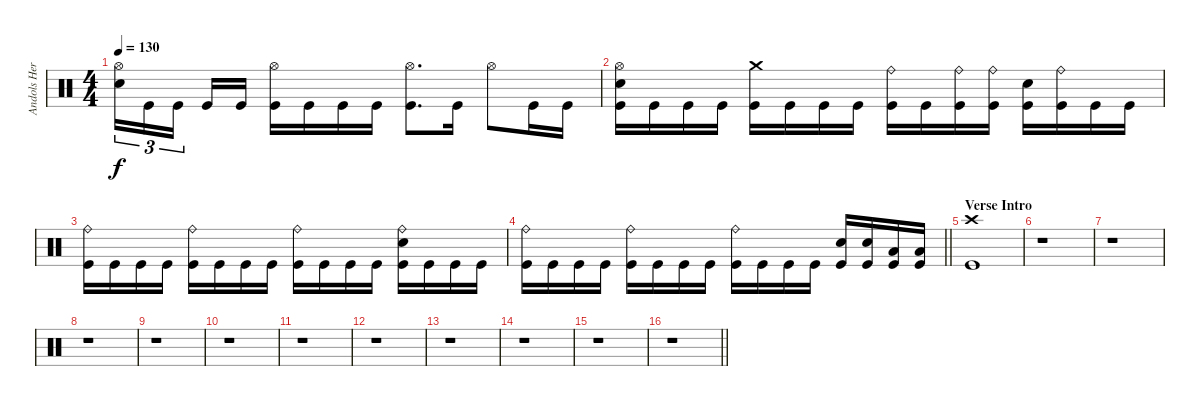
\track ("Andols Herrick" "Andols Her") {instrument percussion}
\staff {score}
\articulation defaults
\ts (4 4)
\tempo 130
\clef neutral
\ks c
("Hi-Hat (open)" "Electric Snare (hit)").16{tu (3 2) dy f} "Kick (hit)".16{tu (3 2)} "Kick (hit)".16{tu (3 2) beam splitsecondary} "Kick (hit)".16 "Kick (hit)".16 ("Hi-Hat (open)" "Kick (hit)").16 "Kick (hit)".16 "Kick (hit)".16 "Kick (hit)".16 ("Hi-Hat (open)" "Kick (hit)").8{d} "Kick (hit)".16 "Hi-Hat (open)".8 "Kick (hit)".16 "Kick (hit)".16 |
("Hi-Hat (open)" "Electric Snare (hit)" "Kick (hit)").16 "Kick (hit)".16 "Kick (hit)".16 "Kick (hit)".16 ("Crash medium (hit)" "Kick (hit)").16 "Kick (hit)".16 "Kick (hit)".16 "Kick (hit)".16 ("Ride (bell)" "Kick (hit)").16 "Kick (hit)".16 ("Ride (bell)" "Kick (hit)").16 ("Ride (bell)" "Kick (hit)").16 ("Electric Snare (hit)" "Kick (hit)").16 ("Ride (bell)" "Kick (hit)").16 "Kick (hit)".16 "Kick (hit)".16 |
("Ride (bell)" "Kick (hit)").16 "Kick (hit)".16 "Kick (hit)".16 "Kick (hit)".16 ("Ride (bell)" "Kick (hit)").16 "Kick (hit)".16 "Kick (hit)".16 "Kick (hit)".16 ("Ride (bell)" "Kick (hit)").16 "Kick (hit)".16 "Kick (hit)".16 "Kick (hit)".16 ("Ride (bell)" "Electric Snare (hit)" "Kick (hit)").16 "Kick (hit)".16 "Kick (hit)".16 "Kick (hit)".16 |
\barLineRight lightlight
("Ride (bell)" "Kick (hit)").16 "Kick (hit)".16 "Kick (hit)".16 "Kick (hit)".16 ("Ride (bell)" "Kick (hit)").16 "Kick (hit)".16 "Kick (hit)".16 "Kick (hit)".16 ("Ride (bell)" "Kick (hit)").16 "Kick (hit)".16 "Kick (hit)".16 "Kick (hit)".16 ("Electric Snare (hit)" "Kick (hit)").16 ("Electric Snare (hit)" "Kick (hit)").16 ("Low Tom (hit)" "Kick (hit)").16 ("Low Tom (hit)" "Kick (hit)").16 |
\section ("" "Verse Intro")
("Crash high (hit)" "Kick (hit)").1 |
r.1 |
r.1 |
r.1 |
r.1 |
r.1 |
r.1 |
r.1 |
r.1 |
r.1 |
r.1 |
\barLineRight lightlight
r.1
